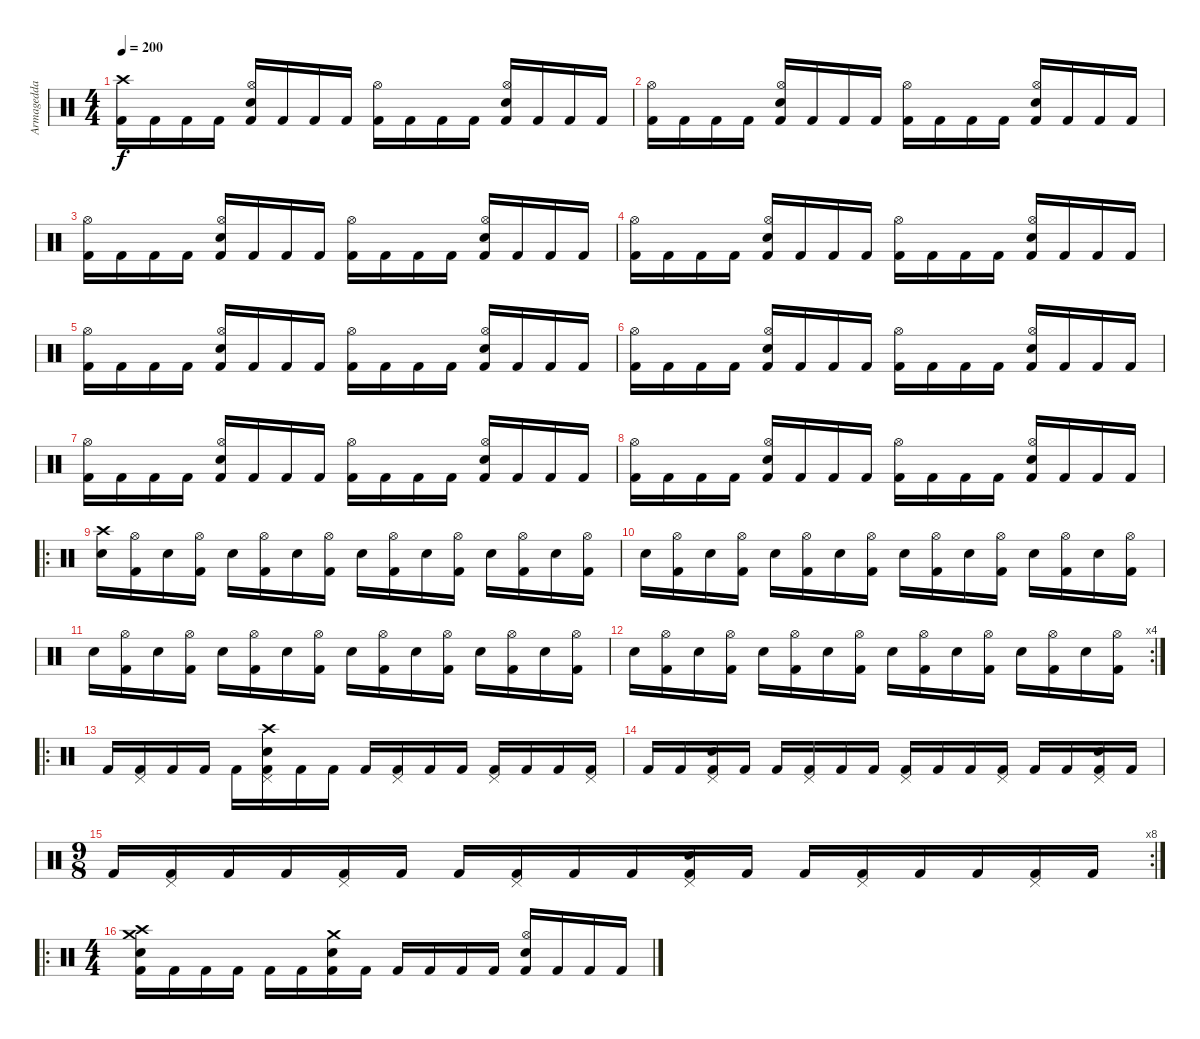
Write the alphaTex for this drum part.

\track ("Armagedda" "Armagedda") {instrument percussion}
\staff {score}
\articulation defaults
\ts (4 4)
\tempo 200
\clef neutral
\ks c
("Crash high (hit)" "Kick (hit) 2").16{dy f} "Kick (hit) 2".16 "Kick (hit) 2".16 "Kick (hit) 2".16 ("Hi-Hat (open)" "Electric Snare (hit)" "Kick (hit) 2").16 "Kick (hit) 2".16 "Kick (hit) 2".16 "Kick (hit) 2".16 ("Hi-Hat (open)" "Kick (hit) 2").16 "Kick (hit) 2".16 "Kick (hit) 2".16 "Kick (hit) 2".16 ("Hi-Hat (open)" "Electric Snare (hit)" "Kick (hit) 2").16 "Kick (hit) 2".16 "Kick (hit) 2".16 "Kick (hit) 2".16 |
("Hi-Hat (open)" "Kick (hit) 2").16 "Kick (hit) 2".16 "Kick (hit) 2".16 "Kick (hit) 2".16 ("Hi-Hat (open)" "Electric Snare (hit)" "Kick (hit) 2").16 "Kick (hit) 2".16 "Kick (hit) 2".16 "Kick (hit) 2".16 ("Hi-Hat (open)" "Kick (hit) 2").16 "Kick (hit) 2".16 "Kick (hit) 2".16 "Kick (hit) 2".16 ("Hi-Hat (open)" "Electric Snare (hit)" "Kick (hit) 2").16 "Kick (hit) 2".16 "Kick (hit) 2".16 "Kick (hit) 2".16 |
("Hi-Hat (open)" "Kick (hit) 2").16 "Kick (hit) 2".16 "Kick (hit) 2".16 "Kick (hit) 2".16 ("Hi-Hat (open)" "Electric Snare (hit)" "Kick (hit) 2").16 "Kick (hit) 2".16 "Kick (hit) 2".16 "Kick (hit) 2".16 ("Hi-Hat (open)" "Kick (hit) 2").16 "Kick (hit) 2".16 "Kick (hit) 2".16 "Kick (hit) 2".16 ("Hi-Hat (open)" "Electric Snare (hit)" "Kick (hit) 2").16 "Kick (hit) 2".16 "Kick (hit) 2".16 "Kick (hit) 2".16 |
("Hi-Hat (open)" "Kick (hit) 2").16 "Kick (hit) 2".16 "Kick (hit) 2".16 "Kick (hit) 2".16 ("Hi-Hat (open)" "Electric Snare (hit)" "Kick (hit) 2").16 "Kick (hit) 2".16 "Kick (hit) 2".16 "Kick (hit) 2".16 ("Hi-Hat (open)" "Kick (hit) 2").16 "Kick (hit) 2".16 "Kick (hit) 2".16 "Kick (hit) 2".16 ("Hi-Hat (open)" "Electric Snare (hit)" "Kick (hit) 2").16 "Kick (hit) 2".16 "Kick (hit) 2".16 "Kick (hit) 2".16 |
("Hi-Hat (open)" "Kick (hit) 2").16 "Kick (hit) 2".16 "Kick (hit) 2".16 "Kick (hit) 2".16 ("Hi-Hat (open)" "Electric Snare (hit)" "Kick (hit) 2").16 "Kick (hit) 2".16 "Kick (hit) 2".16 "Kick (hit) 2".16 ("Hi-Hat (open)" "Kick (hit) 2").16 "Kick (hit) 2".16 "Kick (hit) 2".16 "Kick (hit) 2".16 ("Hi-Hat (open)" "Electric Snare (hit)" "Kick (hit) 2").16 "Kick (hit) 2".16 "Kick (hit) 2".16 "Kick (hit) 2".16 |
("Hi-Hat (open)" "Kick (hit) 2").16 "Kick (hit) 2".16 "Kick (hit) 2".16 "Kick (hit) 2".16 ("Hi-Hat (open)" "Electric Snare (hit)" "Kick (hit) 2").16 "Kick (hit) 2".16 "Kick (hit) 2".16 "Kick (hit) 2".16 ("Hi-Hat (open)" "Kick (hit) 2").16 "Kick (hit) 2".16 "Kick (hit) 2".16 "Kick (hit) 2".16 ("Hi-Hat (open)" "Electric Snare (hit)" "Kick (hit) 2").16 "Kick (hit) 2".16 "Kick (hit) 2".16 "Kick (hit) 2".16 |
("Hi-Hat (open)" "Kick (hit) 2").16 "Kick (hit) 2".16 "Kick (hit) 2".16 "Kick (hit) 2".16 ("Hi-Hat (open)" "Electric Snare (hit)" "Kick (hit) 2").16 "Kick (hit) 2".16 "Kick (hit) 2".16 "Kick (hit) 2".16 ("Hi-Hat (open)" "Kick (hit) 2").16 "Kick (hit) 2".16 "Kick (hit) 2".16 "Kick (hit) 2".16 ("Hi-Hat (open)" "Electric Snare (hit)" "Kick (hit) 2").16 "Kick (hit) 2".16 "Kick (hit) 2".16 "Kick (hit) 2".16 |
("Hi-Hat (open)" "Kick (hit) 2").16 "Kick (hit) 2".16 "Kick (hit) 2".16 "Kick (hit) 2".16 ("Hi-Hat (open)" "Electric Snare (hit)" "Kick (hit) 2").16 "Kick (hit) 2".16 "Kick (hit) 2".16 "Kick (hit) 2".16 ("Hi-Hat (open)" "Kick (hit) 2").16 "Kick (hit) 2".16 "Kick (hit) 2".16 "Kick (hit) 2".16 ("Hi-Hat (open)" "Electric Snare (hit)" "Kick (hit) 2").16 "Kick (hit) 2".16 "Kick (hit) 2".16 "Kick (hit) 2".16 |
\ro
("Crash high (hit)" "Snare (hit) 2").16 ("Hi-Hat (open)" "Kick (hit) 2").16 "Snare (hit) 2".16 ("Hi-Hat (open)" "Kick (hit) 2").16 "Snare (hit) 2".16 ("Hi-Hat (open)" "Kick (hit) 2").16 "Snare (hit) 2".16 ("Hi-Hat (open)" "Kick (hit) 2").16 "Snare (hit) 2".16 ("Hi-Hat (open)" "Kick (hit) 2").16 "Snare (hit) 2".16 ("Hi-Hat (open)" "Kick (hit) 2").16 "Snare (hit) 2".16 ("Hi-Hat (open)" "Kick (hit) 2").16 "Snare (hit) 2".16 ("Hi-Hat (open)" "Kick (hit) 2").16 |
"Snare (hit) 2".16 ("Hi-Hat (open)" "Kick (hit) 2").16 "Snare (hit) 2".16 ("Hi-Hat (open)" "Kick (hit) 2").16 "Snare (hit) 2".16 ("Hi-Hat (open)" "Kick (hit) 2").16 "Snare (hit) 2".16 ("Hi-Hat (open)" "Kick (hit) 2").16 "Snare (hit) 2".16 ("Hi-Hat (open)" "Kick (hit) 2").16 "Snare (hit) 2".16 ("Hi-Hat (open)" "Kick (hit) 2").16 "Snare (hit) 2".16 ("Hi-Hat (open)" "Kick (hit) 2").16 "Snare (hit) 2".16 ("Hi-Hat (open)" "Kick (hit) 2").16 |
"Snare (hit) 2".16 ("Hi-Hat (open)" "Kick (hit) 2").16 "Snare (hit) 2".16 ("Hi-Hat (open)" "Kick (hit) 2").16 "Snare (hit) 2".16 ("Hi-Hat (open)" "Kick (hit) 2").16 "Snare (hit) 2".16 ("Hi-Hat (open)" "Kick (hit) 2").16 "Snare (hit) 2".16 ("Hi-Hat (open)" "Kick (hit) 2").16 "Snare (hit) 2".16 ("Hi-Hat (open)" "Kick (hit) 2").16 "Snare (hit) 2".16 ("Hi-Hat (open)" "Kick (hit) 2").16 "Snare (hit) 2".16 ("Hi-Hat (open)" "Kick (hit) 2").16 |
\rc 4 "Snare (hit) 2".16
("Hi-Hat (open)" "Kick (hit) 2").16 "Snare (hit) 2".16 ("Hi-Hat (open)" "Kick (hit) 2").16 "Snare (hit) 2".16 ("Hi-Hat (open)" "Kick (hit) 2").16 "Snare (hit) 2".16 ("Hi-Hat (open)" "Kick (hit) 2").16 "Snare (hit) 2".16 ("Hi-Hat (open)" "Kick (hit) 2").16 "Snare (hit) 2".16 ("Hi-Hat (open)" "Kick (hit) 2").16 "Snare (hit) 2".16 ("Hi-Hat (open)" "Kick (hit) 2").16 "Snare (hit) 2".16 ("Hi-Hat (open)" "Kick (hit) 2").16 |
\ro "Kick (hit) 2".16
("Pedal Hi-Hat (hit)" "Kick (hit) 2").16 "Kick (hit) 2".16 "Kick (hit) 2".16 "Kick (hit) 2".16 ("Crash high (hit)" "Pedal Hi-Hat (hit)" "Electric Snare (hit)" "Kick (hit) 2").16 "Kick (hit) 2".16 "Kick (hit) 2".16 "Kick (hit) 2".16 ("Pedal Hi-Hat (hit)" "Kick (hit) 2").16 "Kick (hit) 2".16 "Kick (hit) 2".16 ("Pedal Hi-Hat (hit)" "Kick (hit) 2").16 "Kick (hit) 2".16 "Kick (hit) 2".16 ("Pedal Hi-Hat (hit)" "Kick (hit) 2").16 |
"Kick (hit) 2".16 "Kick (hit) 2".16 ("Pedal Hi-Hat (hit)" "Electric Snare (hit)" "Kick (hit) 2").16 "Kick (hit) 2".16 "Kick (hit) 2".16 ("Pedal Hi-Hat (hit)" "Kick (hit) 2").16 "Kick (hit) 2".16 "Kick (hit) 2".16 ("Pedal Hi-Hat (hit)" "Kick (hit) 2").16 "Kick (hit) 2".16 "Kick (hit) 2".16 ("Pedal Hi-Hat (hit)" "Kick (hit) 2").16 "Kick (hit) 2".16 "Kick (hit) 2".16 ("Pedal Hi-Hat (hit)" "Electric Snare (hit)" "Kick (hit) 2").16 "Kick (hit) 2".16 |
\rc 8
\ts (9 8)
"Kick (hit) 2".16 ("Pedal Hi-Hat (hit)" "Kick (hit) 2").16 "Kick (hit) 2".16 "Kick (hit) 2".16 ("Pedal Hi-Hat (hit)" "Kick (hit) 2").16 "Kick (hit) 2".16 "Kick (hit) 2".16 ("Pedal Hi-Hat (hit)" "Kick (hit) 2").16 "Kick (hit) 2".16 "Kick (hit) 2".16 ("Pedal Hi-Hat (hit)" "Electric Snare (hit)" "Kick (hit) 2").16 "Kick (hit) 2".16 "Kick (hit) 2".16 ("Pedal Hi-Hat (hit)" "Kick (hit) 2").16 "Kick (hit) 2".16 "Kick (hit) 2".16 ("Pedal Hi-Hat (hit)" "Kick (hit) 2").16 "Kick (hit) 2".16 |
\ro
\ts (4 4)
("Crash high (hit)" "Crash medium (hit)" "Electric Snare (hit)" "Kick (hit) 2").16 "Kick (hit) 2".16 "Kick (hit) 2".16 "Kick (hit) 2".16 "Kick (hit) 2".16 "Kick (hit) 2".16 ("Crash medium (hit)" "Electric Snare (hit)" "Kick (hit) 2").16 "Kick (hit) 2".16 "Kick (hit) 2".16 "Kick (hit) 2".16 "Kick (hit) 2".16 "Kick (hit) 2".16 ("Hi-Hat (open)" "Electric Snare (hit)" "Kick (hit) 2").16 "Kick (hit) 2".16 "Kick (hit) 2".16 "Kick (hit) 2".16
